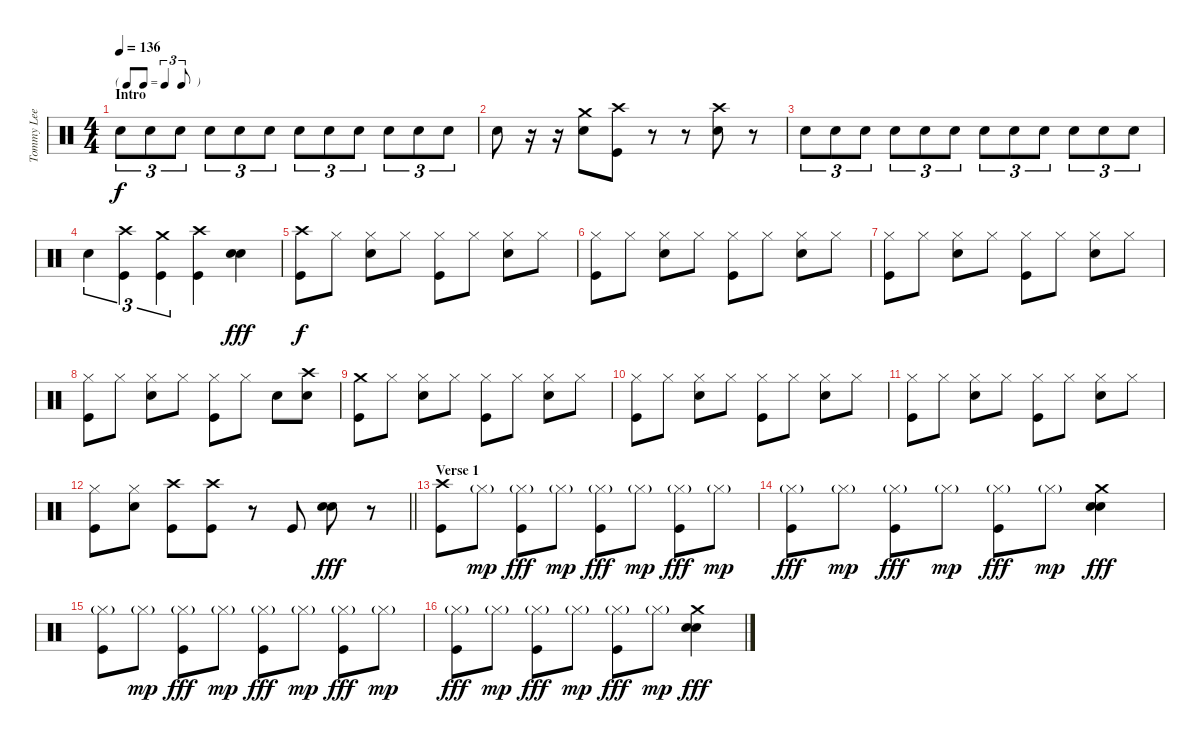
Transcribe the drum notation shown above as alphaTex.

\track ("Tommy Lee" "Tommy Lee") {instrument percussion}
\staff {score}
\articulation defaults
\ts (4 4)
\tf triplet8th
\section ("" "Intro")
\tempo 136
\clef neutral
\ks c "Snare (hit) 2".8{tu (3 2) dy f} "Snare (hit) 2".8{tu (3 2)} "Snare (hit) 2".8{tu (3 2)} "Snare (hit) 2".8{tu (3 2)} "Snare (hit) 2".8{tu (3 2)} "Snare (hit) 2".8{tu (3 2)} "Snare (hit) 2".8{tu (3 2)} "Snare (hit) 2".8{tu (3 2)} "Snare (hit) 2".8{tu (3 2)} "Snare (hit) 2".8{tu (3 2)} "Snare (hit) 2".8{tu (3 2)} "Snare (hit) 2".8{tu (3 2)}
|
"Snare (hit) 2".8 r.16 r.16 ("Crash medium (hit)" "Snare (hit) 2").8 ("Crash high (hit)" "Kick (hit)").8 r.8 r.8 ("Crash high (hit)" "Snare (hit) 2").8 r.8 |
"Snare (hit) 2".8{tu (3 2)} "Snare (hit) 2".8{tu (3 2)} "Snare (hit) 2".8{tu (3 2)} "Snare (hit) 2".8{tu (3 2)} "Snare (hit) 2".8{tu (3 2)} "Snare (hit) 2".8{tu (3 2)} "Snare (hit) 2".8{tu (3 2)} "Snare (hit) 2".8{tu (3 2)} "Snare (hit) 2".8{tu (3 2)} "Snare (hit) 2".8{tu (3 2)} "Snare (hit) 2".8{tu (3 2)} "Snare (hit) 2".8{tu (3 2)} |
"Snare (hit) 2".4{tu (3 2)} ("Crash high (hit)" "Kick (hit)").4{tu (3 2)} ("Crash medium (hit)" "Kick (hit)").4{tu (3 2)} ("Crash high (hit)" "Kick (hit)").4 ("Snare (hit) 2" "Snare (hit) 2").4{dy fff} |
("Crash high (hit)" "Kick (hit)").8{dy f} "Hi-Hat (closed)".8 ("Hi-Hat (closed)" "Snare (hit) 2").8 "Hi-Hat (closed)".8 ("Hi-Hat (closed)" "Kick (hit)").8 "Hi-Hat (closed)".8 ("Hi-Hat (closed)" "Snare (hit) 2").8 "Hi-Hat (closed)".8 |
("Hi-Hat (closed)" "Kick (hit)").8 "Hi-Hat (closed)".8 ("Hi-Hat (closed)" "Snare (hit) 2").8 "Hi-Hat (closed)".8 ("Hi-Hat (closed)" "Kick (hit)").8 "Hi-Hat (closed)".8 ("Hi-Hat (closed)" "Snare (hit) 2").8 "Hi-Hat (closed)".8 |
("Hi-Hat (closed)" "Kick (hit)").8 "Hi-Hat (closed)".8 ("Hi-Hat (closed)" "Snare (hit) 2").8 "Hi-Hat (closed)".8 ("Hi-Hat (closed)" "Kick (hit)").8 "Hi-Hat (closed)".8 ("Hi-Hat (closed)" "Snare (hit) 2").8 "Hi-Hat (closed)".8 |
("Hi-Hat (closed)" "Kick (hit)").8 "Hi-Hat (closed)".8 ("Hi-Hat (closed)" "Snare (hit) 2").8 "Hi-Hat (closed)".8 ("Hi-Hat (closed)" "Kick (hit)").8 "Hi-Hat (closed)".8 "Snare (hit) 2".8 ("Crash high (hit)" "Snare (hit) 2").8 |
("Crash medium (hit)" "Kick (hit)").8 "Hi-Hat (closed)".8 ("Hi-Hat (closed)" "Snare (hit) 2").8 "Hi-Hat (closed)".8 ("Hi-Hat (closed)" "Kick (hit)").8 "Hi-Hat (closed)".8 ("Hi-Hat (closed)" "Snare (hit) 2").8 "Hi-Hat (closed)".8 |
("Hi-Hat (closed)" "Kick (hit)").8 "Hi-Hat (closed)".8 ("Hi-Hat (closed)" "Snare (hit) 2").8 "Hi-Hat (closed)".8 ("Hi-Hat (closed)" "Kick (hit)").8 "Hi-Hat (closed)".8 ("Hi-Hat (closed)" "Snare (hit) 2").8 "Hi-Hat (closed)".8 |
("Hi-Hat (closed)" "Kick (hit)").8 "Hi-Hat (closed)".8 ("Hi-Hat (closed)" "Snare (hit) 2").8 "Hi-Hat (closed)".8 ("Hi-Hat (closed)" "Kick (hit)").8 "Hi-Hat (closed)".8 ("Hi-Hat (closed)" "Snare (hit) 2").8 "Hi-Hat (closed)".8 |
\barLineRight lightlight
("Hi-Hat (closed)" "Kick (hit)").8 ("Hi-Hat (closed)" "Snare (hit) 2").8 ("Crash high (hit)" "Kick (hit)").8 ("Crash high (hit)" "Kick (hit)").8 r.8 "Kick (hit)".8 ("Snare (hit) 2" "Snare (hit) 2").8{dy fff} r.8 |
\section ("" "Verse 1")
("Crash high (hit)" "Kick (hit)").8 "Hi-Hat (closed)"{g}.8{dy mp} ("Hi-Hat (closed)"{g} "Kick (hit)").8{dy fff} "Hi-Hat (closed)"{g}.8{dy mp} ("Hi-Hat (closed)"{g} "Kick (hit)").8{dy fff} "Hi-Hat (closed)"{g}.8{dy mp} ("Hi-Hat (closed)"{g} "Kick (hit)").8{dy fff} "Hi-Hat (closed)"{g}.8{dy mp} |
("Hi-Hat (closed)"{g} "Kick (hit)").8{dy fff} "Hi-Hat (closed)"{g}.8{dy mp} ("Hi-Hat (closed)"{g} "Kick (hit)").8{dy fff} "Hi-Hat (closed)"{g}.8{dy mp} ("Hi-Hat (closed)"{g} "Kick (hit)").8{dy fff} "Hi-Hat (closed)"{g}.8{dy mp} ("Crash medium (hit)" "Snare (hit) 2" "Snare (hit) 2").4{dy fff} |
("Hi-Hat (closed)"{g} "Kick (hit)").8 "Hi-Hat (closed)"{g}.8{dy mp} ("Hi-Hat (closed)"{g} "Kick (hit)").8{dy fff} "Hi-Hat (closed)"{g}.8{dy mp} ("Hi-Hat (closed)"{g} "Kick (hit)").8{dy fff} "Hi-Hat (closed)"{g}.8{dy mp} ("Hi-Hat (closed)"{g} "Kick (hit)").8{dy fff} "Hi-Hat (closed)"{g}.8{dy mp} |
("Hi-Hat (closed)"{g} "Kick (hit)").8{dy fff} "Hi-Hat (closed)"{g}.8{dy mp} ("Hi-Hat (closed)"{g} "Kick (hit)").8{dy fff} "Hi-Hat (closed)"{g}.8{dy mp} ("Hi-Hat (closed)"{g} "Kick (hit)").8{dy fff} "Hi-Hat (closed)"{g}.8{dy mp} ("Crash medium (hit)" "Snare (hit) 2" "Snare (hit) 2").4{dy fff}
